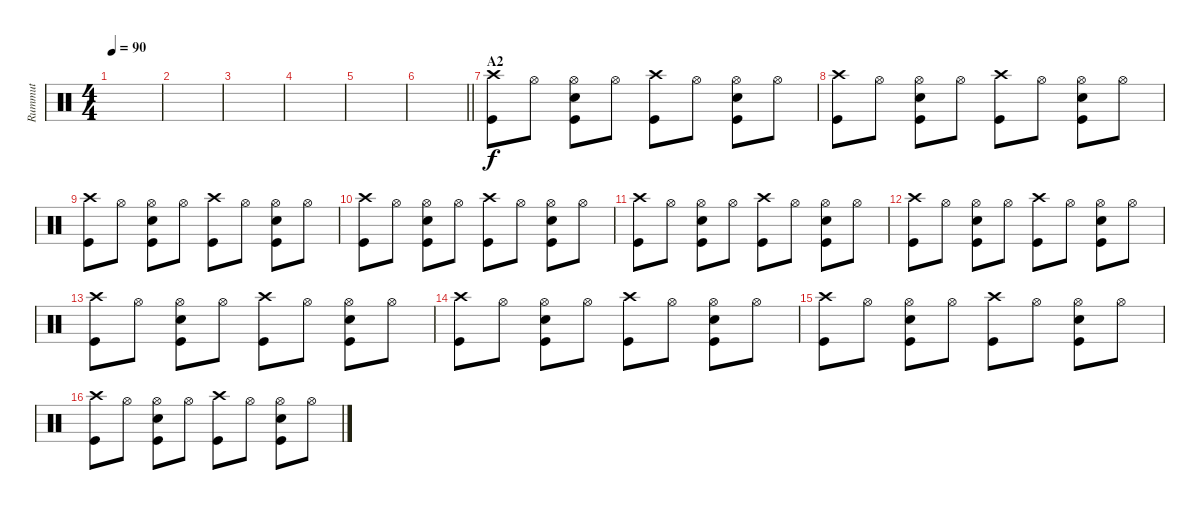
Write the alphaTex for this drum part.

\track ("Rummut" "Rummut") {instrument percussion}
\staff {score}
\articulation defaults
\ts (4 4)
\tempo 90
\clef neutral
\ks c
|
|
|
|
|
\barLineRight lightlight
|
\section ("" "A2")
("Crash high (hit)" "Kick (hit)").8 "Hi-Hat (open)".8 ("Hi-Hat (open)" "Electric Snare (hit)" "Kick (hit)").8 "Hi-Hat (open)".8 ("Crash high (hit)" "Kick (hit)").8 "Hi-Hat (open)".8 ("Hi-Hat (open)" "Electric Snare (hit)" "Kick (hit)").8 "Hi-Hat (open)".8 |
("Crash high (hit)" "Kick (hit)").8 "Hi-Hat (open)".8 ("Hi-Hat (open)" "Electric Snare (hit)" "Kick (hit)").8 "Hi-Hat (open)".8 ("Crash high (hit)" "Kick (hit)").8 "Hi-Hat (open)".8 ("Hi-Hat (open)" "Electric Snare (hit)" "Kick (hit)").8 "Hi-Hat (open)".8 |
("Crash high (hit)" "Kick (hit)").8 "Hi-Hat (open)".8 ("Hi-Hat (open)" "Electric Snare (hit)" "Kick (hit)").8 "Hi-Hat (open)".8 ("Crash high (hit)" "Kick (hit)").8 "Hi-Hat (open)".8 ("Hi-Hat (open)" "Electric Snare (hit)" "Kick (hit)").8 "Hi-Hat (open)".8 |
("Crash high (hit)" "Kick (hit)").8 "Hi-Hat (open)".8 ("Hi-Hat (open)" "Electric Snare (hit)" "Kick (hit)").8 "Hi-Hat (open)".8 ("Crash high (hit)" "Kick (hit)").8 "Hi-Hat (open)".8 ("Hi-Hat (open)" "Electric Snare (hit)" "Kick (hit)").8 "Hi-Hat (open)".8 |
("Crash high (hit)" "Kick (hit)").8 "Hi-Hat (open)".8 ("Hi-Hat (open)" "Electric Snare (hit)" "Kick (hit)").8 "Hi-Hat (open)".8 ("Crash high (hit)" "Kick (hit)").8 "Hi-Hat (open)".8 ("Hi-Hat (open)" "Electric Snare (hit)" "Kick (hit)").8 "Hi-Hat (open)".8 |
("Crash high (hit)" "Kick (hit)").8 "Hi-Hat (open)".8 ("Hi-Hat (open)" "Electric Snare (hit)" "Kick (hit)").8 "Hi-Hat (open)".8 ("Crash high (hit)" "Kick (hit)").8 "Hi-Hat (open)".8 ("Hi-Hat (open)" "Electric Snare (hit)" "Kick (hit)").8 "Hi-Hat (open)".8 |
("Crash high (hit)" "Kick (hit)").8 "Hi-Hat (open)".8 ("Hi-Hat (open)" "Electric Snare (hit)" "Kick (hit)").8 "Hi-Hat (open)".8 ("Crash high (hit)" "Kick (hit)").8 "Hi-Hat (open)".8 ("Hi-Hat (open)" "Electric Snare (hit)" "Kick (hit)").8 "Hi-Hat (open)".8 |
("Crash high (hit)" "Kick (hit)").8 "Hi-Hat (open)".8 ("Hi-Hat (open)" "Electric Snare (hit)" "Kick (hit)").8 "Hi-Hat (open)".8 ("Crash high (hit)" "Kick (hit)").8 "Hi-Hat (open)".8 ("Hi-Hat (open)" "Electric Snare (hit)" "Kick (hit)").8 "Hi-Hat (open)".8 |
("Crash high (hit)" "Kick (hit)").8 "Hi-Hat (open)".8 ("Hi-Hat (open)" "Electric Snare (hit)" "Kick (hit)").8 "Hi-Hat (open)".8 ("Crash high (hit)" "Kick (hit)").8 "Hi-Hat (open)".8 ("Hi-Hat (open)" "Electric Snare (hit)" "Kick (hit)").8 "Hi-Hat (open)".8 |
("Crash high (hit)" "Kick (hit)").8 "Hi-Hat (open)".8 ("Hi-Hat (open)" "Electric Snare (hit)" "Kick (hit)").8 "Hi-Hat (open)".8 ("Crash high (hit)" "Kick (hit)").8 "Hi-Hat (open)".8 ("Hi-Hat (open)" "Electric Snare (hit)" "Kick (hit)").8 "Hi-Hat (open)".8
